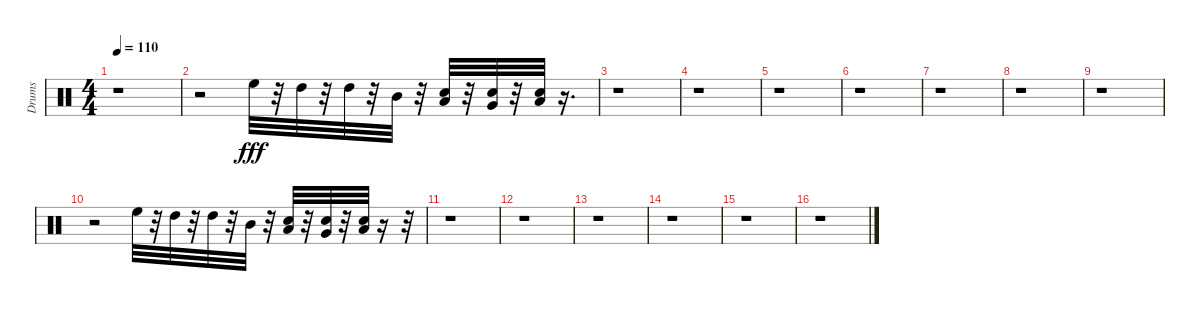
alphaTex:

\track ("Drums" "Drums") {instrument percussion}
\staff {score}
\articulation defaults
\ts (4 4)
\tempo 110
\clef neutral
\ks c
r.1{dy fff} |
r.2 "High Floor Tom (hit)".32 r.32 "High Tom (hit)".32 r.32 "High Tom (hit)".32 r.32 "Mid Tom (hit)".32 r.32 ("Low Tom (hit)" "Electric Snare (hit)").32 r.32 ("Very Low Tom (hit)" "Electric Snare (hit)").32 r.32 ("Low Floor Tom (hit)" "Electric Snare (hit)").32 r.16{d} |
r.1 |
r.1 |
r.1 |
r.1 |
r.1 |
r.1 |
r.1 |
r.2 "High Floor Tom (hit)".32 r.32 "High Tom (hit)".32 r.32 "High Tom (hit)".32 r.32 "Mid Tom (hit)".32 r.32 ("Low Tom (hit)" "Electric Snare (hit)").32 r.32 ("Very Low Tom (hit)" "Electric Snare (hit)").32 r.32 ("Low Floor Tom (hit)" "Electric Snare (hit)").32 r.16 r.32 |
r.1 |
r.1 |
r.1 |
r.1 |
r.1 |
r.1
